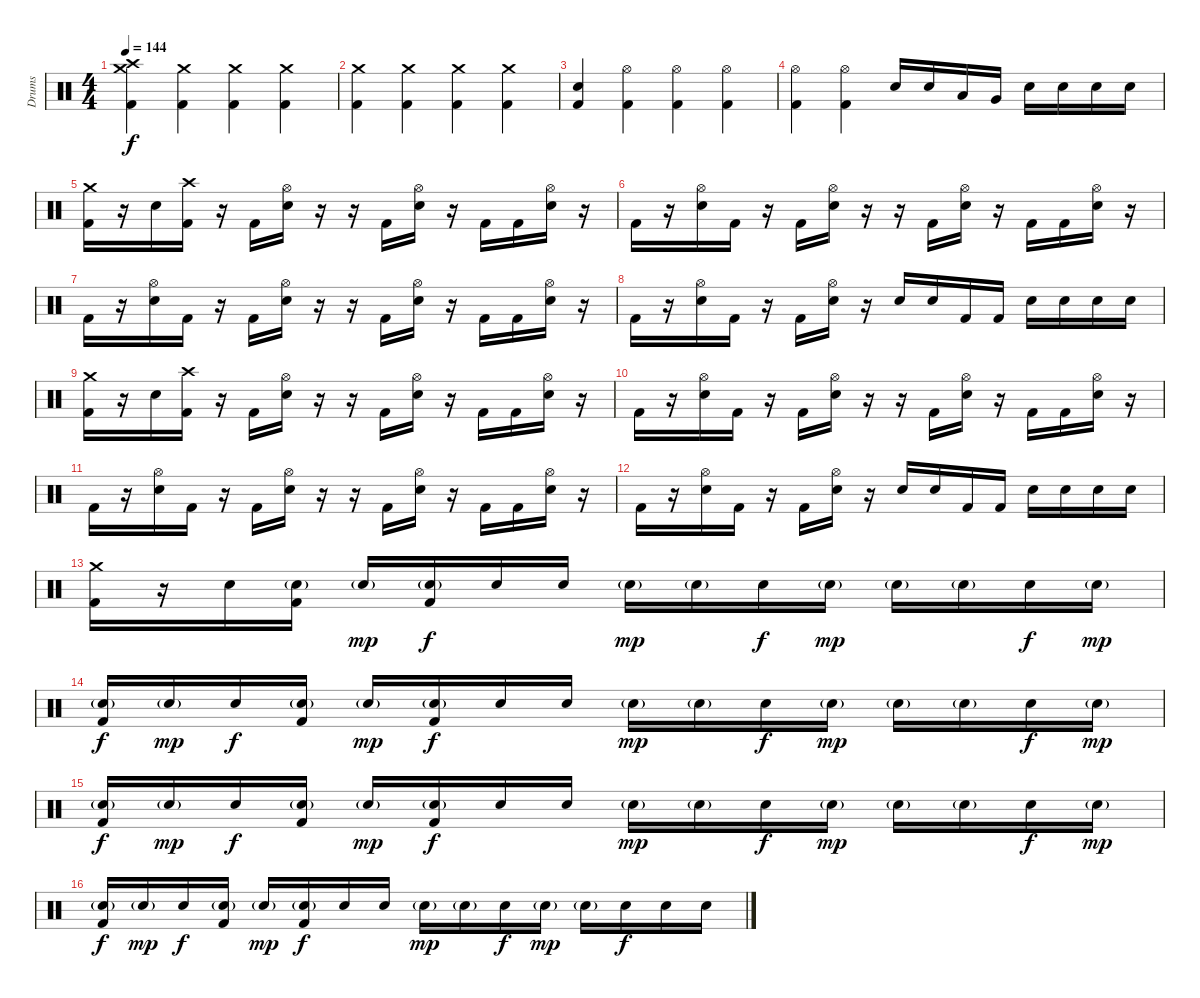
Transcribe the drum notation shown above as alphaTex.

\track ("Drums" "Drums") {instrument percussion}
\staff {score}
\articulation defaults
\ts (4 4)
\tempo 144
\clef neutral
\ks c
("Crash medium (hit)" "Crash high (hit)" "Kick (hit) 2").4{dy f} ("Crash medium (hit)" "Kick (hit) 2").4 ("Crash medium (hit)" "Kick (hit) 2").4 ("Crash medium (hit)" "Kick (hit) 2").4 |
("Crash medium (hit)" "Kick (hit) 2").4 ("Crash medium (hit)" "Kick (hit) 2").4 ("Crash medium (hit)" "Kick (hit) 2").4 ("Crash medium (hit)" "Kick (hit) 2").4 |
("Electric Snare (hit)" "Kick (hit) 2").4 ("Hi-Hat (open)" "Kick (hit) 2").4 ("Hi-Hat (open)" "Kick (hit) 2").4 ("Hi-Hat (open)" "Kick (hit) 2").4 |
("Hi-Hat (open)" "Kick (hit) 2").4 ("Hi-Hat (open)" "Kick (hit) 2").4 "Electric Snare (hit)".16 "Electric Snare (hit)".16 "Low Tom (hit)".16 "Very Low Tom (hit)".16 "Electric Snare (hit)".16 "Electric Snare (hit)".16 "Electric Snare (hit)".16 "Electric Snare (hit)".16 |
("Crash medium (hit)" "Kick (hit) 2").16 r.16 "Electric Snare (hit)".16 ("Crash high (hit)" "Kick (hit) 2").16 r.16 "Kick (hit) 2".16 ("Hi-Hat (open)" "Electric Snare (hit)").16 r.16 r.16 "Kick (hit) 2".16 ("Hi-Hat (open)" "Electric Snare (hit)").16 r.16 "Kick (hit) 2".16 "Kick (hit) 2".16 ("Hi-Hat (open)" "Electric Snare (hit)").16 r.16 |
"Kick (hit) 2".16 r.16 ("Hi-Hat (open)" "Electric Snare (hit)").16 "Kick (hit) 2".16 r.16 "Kick (hit) 2".16 ("Hi-Hat (open)" "Electric Snare (hit)").16 r.16 r.16 "Kick (hit) 2".16 ("Hi-Hat (open)" "Electric Snare (hit)").16 r.16 "Kick (hit) 2".16 "Kick (hit) 2".16 ("Hi-Hat (open)" "Electric Snare (hit)").16 r.16 |
"Kick (hit) 2".16 r.16 ("Hi-Hat (open)" "Electric Snare (hit)").16 "Kick (hit) 2".16 r.16 "Kick (hit) 2".16 ("Hi-Hat (open)" "Electric Snare (hit)").16 r.16 r.16 "Kick (hit) 2".16 ("Hi-Hat (open)" "Electric Snare (hit)").16 r.16 "Kick (hit) 2".16 "Kick (hit) 2".16 ("Hi-Hat (open)" "Electric Snare (hit)").16 r.16 |
"Kick (hit) 2".16 r.16 ("Hi-Hat (open)" "Electric Snare (hit)").16 "Kick (hit) 2".16 r.16 "Kick (hit) 2".16 ("Hi-Hat (open)" "Electric Snare (hit)").16 r.16 "Electric Snare (hit)".16 "Electric Snare (hit)".16 "Kick (hit) 2".16 "Kick (hit) 2".16 "Electric Snare (hit)".16 "Electric Snare (hit)".16 "Electric Snare (hit)".16 "Electric Snare (hit)".16 |
("Crash medium (hit)" "Kick (hit) 2").16 r.16 "Electric Snare (hit)".16 ("Crash high (hit)" "Kick (hit) 2").16 r.16 "Kick (hit) 2".16 ("Hi-Hat (open)" "Electric Snare (hit)").16 r.16 r.16 "Kick (hit) 2".16 ("Hi-Hat (open)" "Electric Snare (hit)").16 r.16 "Kick (hit) 2".16 "Kick (hit) 2".16 ("Hi-Hat (open)" "Electric Snare (hit)").16 r.16 |
"Kick (hit) 2".16 r.16 ("Hi-Hat (open)" "Electric Snare (hit)").16 "Kick (hit) 2".16 r.16 "Kick (hit) 2".16 ("Hi-Hat (open)" "Electric Snare (hit)").16 r.16 r.16 "Kick (hit) 2".16 ("Hi-Hat (open)" "Electric Snare (hit)").16 r.16 "Kick (hit) 2".16 "Kick (hit) 2".16 ("Hi-Hat (open)" "Electric Snare (hit)").16 r.16 |
"Kick (hit) 2".16 r.16 ("Hi-Hat (open)" "Electric Snare (hit)").16 "Kick (hit) 2".16 r.16 "Kick (hit) 2".16 ("Hi-Hat (open)" "Electric Snare (hit)").16 r.16 r.16 "Kick (hit) 2".16 ("Hi-Hat (open)" "Electric Snare (hit)").16 r.16 "Kick (hit) 2".16 "Kick (hit) 2".16 ("Hi-Hat (open)" "Electric Snare (hit)").16 r.16 |
"Kick (hit) 2".16 r.16 ("Hi-Hat (open)" "Electric Snare (hit)").16 "Kick (hit) 2".16 r.16 "Kick (hit) 2".16 ("Hi-Hat (open)" "Electric Snare (hit)").16 r.16 "Electric Snare (hit)".16 "Electric Snare (hit)".16 "Kick (hit) 2".16 "Kick (hit) 2".16 "Electric Snare (hit)".16 "Electric Snare (hit)".16 "Electric Snare (hit)".16 "Electric Snare (hit)".16 |
("Crash medium (hit)" "Kick (hit) 2").16 r.16 "Electric Snare (hit)".16 ("Snare (hit) 2"{g} "Kick (hit) 2").16 "Snare (hit) 2"{g}.16{dy mp} ("Snare (hit) 2"{g} "Kick (hit) 2").16{dy f} "Electric Snare (hit)".16 "Electric Snare (hit)".16 "Snare (hit) 2"{g}.16{dy mp} "Snare (hit) 2"{g}.16 "Electric Snare (hit)".16{dy f} "Snare (hit) 2"{g}.16{dy mp} "Snare (hit) 2"{g}.16 "Snare (hit) 2"{g}.16 "Electric Snare (hit)".16{dy f} "Snare (hit) 2"{g}.16{dy mp} |
("Snare (hit) 2"{g} "Kick (hit) 2").16{dy f} "Snare (hit) 2"{g}.16{dy mp} "Electric Snare (hit)".16{dy f} ("Snare (hit) 2"{g} "Kick (hit) 2").16 "Snare (hit) 2"{g}.16{dy mp} ("Snare (hit) 2"{g} "Kick (hit) 2").16{dy f} "Electric Snare (hit)".16 "Electric Snare (hit)".16 "Snare (hit) 2"{g}.16{dy mp} "Snare (hit) 2"{g}.16 "Electric Snare (hit)".16{dy f} "Snare (hit) 2"{g}.16{dy mp} "Snare (hit) 2"{g}.16 "Snare (hit) 2"{g}.16 "Electric Snare (hit)".16{dy f} "Snare (hit) 2"{g}.16{dy mp} |
("Snare (hit) 2"{g} "Kick (hit) 2").16{dy f} "Snare (hit) 2"{g}.16{dy mp} "Electric Snare (hit)".16{dy f} ("Snare (hit) 2"{g} "Kick (hit) 2").16 "Snare (hit) 2"{g}.16{dy mp} ("Snare (hit) 2"{g} "Kick (hit) 2").16{dy f} "Electric Snare (hit)".16 "Electric Snare (hit)".16 "Snare (hit) 2"{g}.16{dy mp} "Snare (hit) 2"{g}.16 "Electric Snare (hit)".16{dy f} "Snare (hit) 2"{g}.16{dy mp} "Snare (hit) 2"{g}.16 "Snare (hit) 2"{g}.16 "Electric Snare (hit)".16{dy f} "Snare (hit) 2"{g}.16{dy mp} |
("Snare (hit) 2"{g} "Kick (hit) 2").16{dy f} "Snare (hit) 2"{g}.16{dy mp} "Electric Snare (hit)".16{dy f} ("Snare (hit) 2"{g} "Kick (hit) 2").16 "Snare (hit) 2"{g}.16{dy mp} ("Snare (hit) 2"{g} "Kick (hit) 2").16{dy f} "Electric Snare (hit)".16 "Electric Snare (hit)".16 "Snare (hit) 2"{g}.16{dy mp} "Snare (hit) 2"{g}.16 "Electric Snare (hit)".16{dy f} "Snare (hit) 2"{g}.16{dy mp} "Snare (hit) 2"{g}.16 "Electric Snare (hit)".16{dy f} "Electric Snare (hit)".16 "Electric Snare (hit)".16
